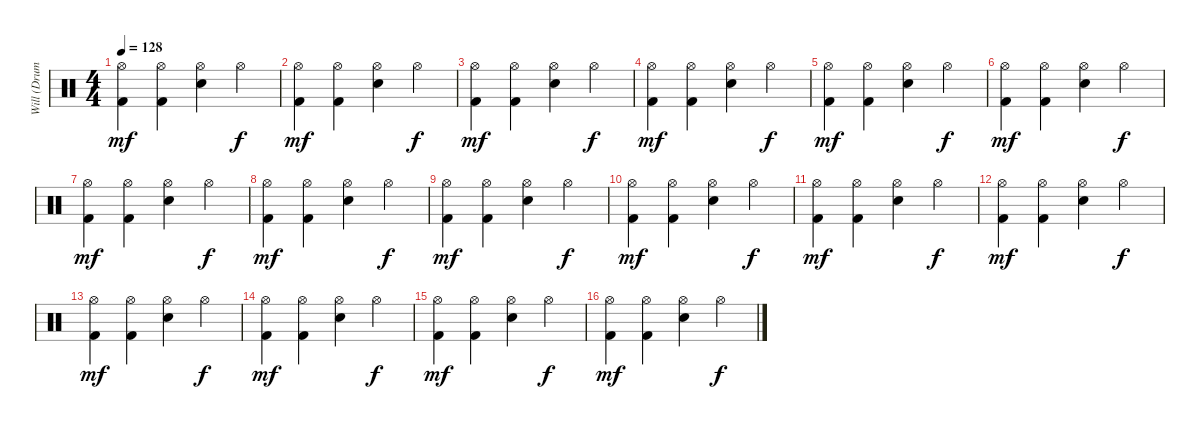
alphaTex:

\track ("Will (Drums)" "Will (Drum") {instrument percussion}
\staff {score}
\articulation defaults
\ts (4 4)
\tempo 128
\clef neutral
\ks c
("Kick (hit) 2" "Hi-Hat (open)").4{dy mf} ("Kick (hit) 2" "Hi-Hat (open)").4 ("Snare (hit) 2" "Hi-Hat (open)").4 "Hi-Hat (open)".4{dy f} |
("Kick (hit) 2" "Hi-Hat (open)").4{dy mf} ("Kick (hit) 2" "Hi-Hat (open)").4 ("Snare (hit) 2" "Hi-Hat (open)").4 "Hi-Hat (open)".4{dy f} |
("Kick (hit) 2" "Hi-Hat (open)").4{dy mf} ("Kick (hit) 2" "Hi-Hat (open)").4 ("Snare (hit) 2" "Hi-Hat (open)").4 "Hi-Hat (open)".4{dy f} |
("Kick (hit) 2" "Hi-Hat (open)").4{dy mf} ("Kick (hit) 2" "Hi-Hat (open)").4 ("Snare (hit) 2" "Hi-Hat (open)").4 "Hi-Hat (open)".4{dy f} |
("Kick (hit) 2" "Hi-Hat (open)").4{dy mf} ("Kick (hit) 2" "Hi-Hat (open)").4 ("Snare (hit) 2" "Hi-Hat (open)").4 "Hi-Hat (open)".4{dy f} |
("Kick (hit) 2" "Hi-Hat (open)").4{dy mf} ("Kick (hit) 2" "Hi-Hat (open)").4 ("Snare (hit) 2" "Hi-Hat (open)").4 "Hi-Hat (open)".4{dy f} |
("Kick (hit) 2" "Hi-Hat (open)").4{dy mf} ("Kick (hit) 2" "Hi-Hat (open)").4 ("Snare (hit) 2" "Hi-Hat (open)").4 "Hi-Hat (open)".4{dy f} |
("Kick (hit) 2" "Hi-Hat (open)").4{dy mf} ("Kick (hit) 2" "Hi-Hat (open)").4 ("Snare (hit) 2" "Hi-Hat (open)").4 "Hi-Hat (open)".4{dy f} |
("Kick (hit) 2" "Hi-Hat (open)").4{dy mf} ("Kick (hit) 2" "Hi-Hat (open)").4 ("Snare (hit) 2" "Hi-Hat (open)").4 "Hi-Hat (open)".4{dy f} |
("Kick (hit) 2" "Hi-Hat (open)").4{dy mf} ("Kick (hit) 2" "Hi-Hat (open)").4 ("Snare (hit) 2" "Hi-Hat (open)").4 "Hi-Hat (open)".4{dy f} |
("Kick (hit) 2" "Hi-Hat (open)").4{dy mf} ("Kick (hit) 2" "Hi-Hat (open)").4 ("Snare (hit) 2" "Hi-Hat (open)").4 "Hi-Hat (open)".4{dy f} |
("Kick (hit) 2" "Hi-Hat (open)").4{dy mf} ("Kick (hit) 2" "Hi-Hat (open)").4 ("Snare (hit) 2" "Hi-Hat (open)").4 "Hi-Hat (open)".4{dy f} |
("Kick (hit) 2" "Hi-Hat (open)").4{dy mf} ("Kick (hit) 2" "Hi-Hat (open)").4 ("Snare (hit) 2" "Hi-Hat (open)").4 "Hi-Hat (open)".4{dy f} |
("Kick (hit) 2" "Hi-Hat (open)").4{dy mf} ("Kick (hit) 2" "Hi-Hat (open)").4 ("Snare (hit) 2" "Hi-Hat (open)").4 "Hi-Hat (open)".4{dy f} |
("Kick (hit) 2" "Hi-Hat (open)").4{dy mf} ("Kick (hit) 2" "Hi-Hat (open)").4 ("Snare (hit) 2" "Hi-Hat (open)").4 "Hi-Hat (open)".4{dy f} |
("Kick (hit) 2" "Hi-Hat (open)").4{dy mf} ("Kick (hit) 2" "Hi-Hat (open)").4 ("Snare (hit) 2" "Hi-Hat (open)").4 "Hi-Hat (open)".4{dy f}
